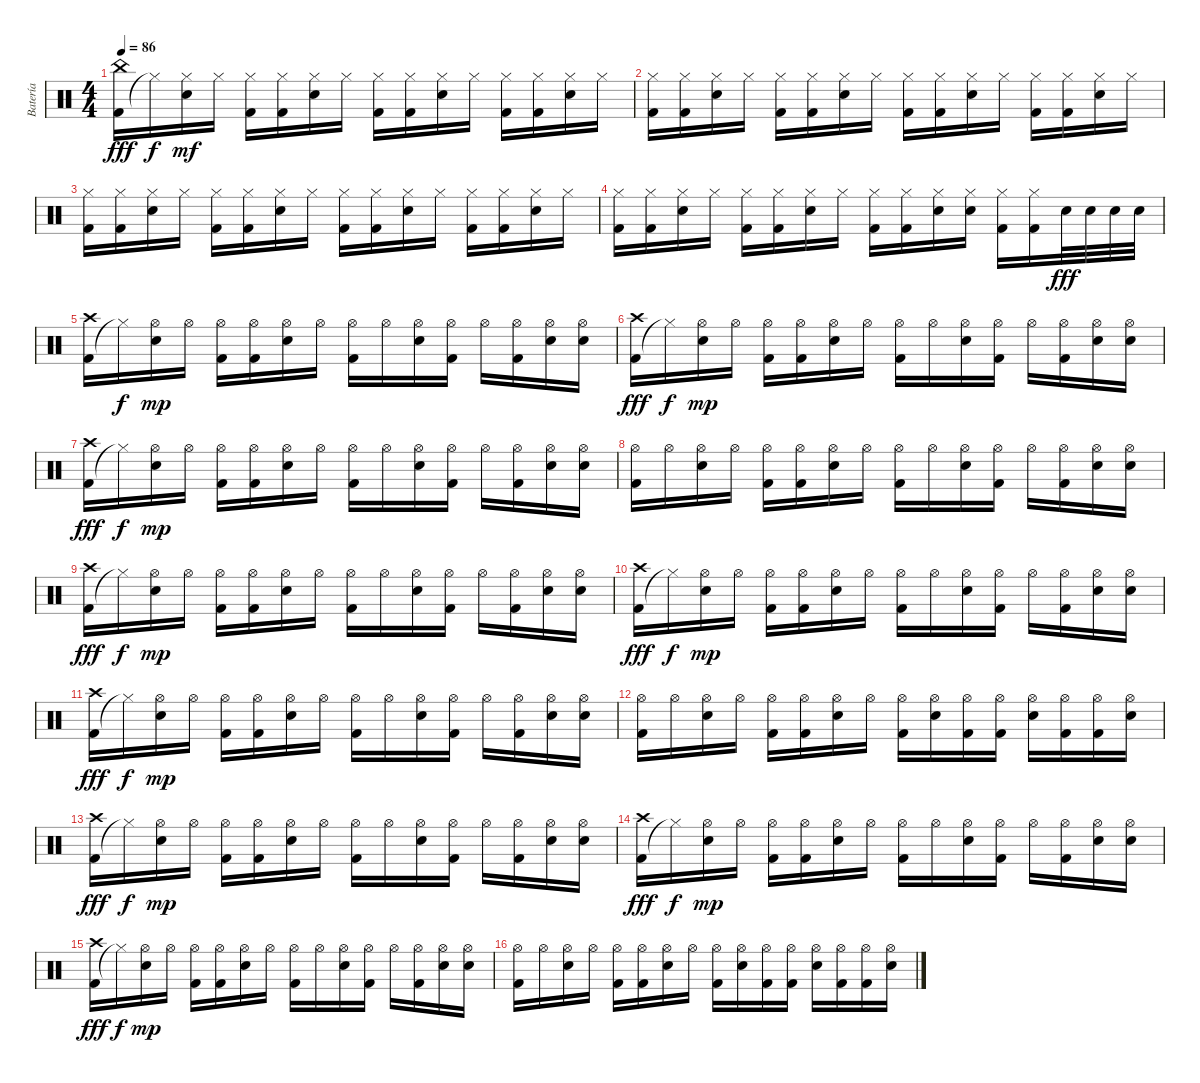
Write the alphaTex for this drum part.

\track ("Batería" "Batería") {instrument percussion}
\staff {score}
\articulation defaults
\ts (4 4)
\tempo 86
\clef neutral
\ks c
("Kick (hit) 2" "China (hit)").16{dy fff} "Hi-Hat (closed)"{t}.16{dy f} ("Electric Snare (hit)" "Hi-Hat (closed)").16{dy mf} "Hi-Hat (closed)".16 ("Kick (hit) 2" "Hi-Hat (closed)").16 ("Kick (hit) 2" "Hi-Hat (closed)").16 ("Electric Snare (hit)" "Hi-Hat (closed)").16 "Hi-Hat (closed)".16 ("Kick (hit) 2" "Hi-Hat (closed)").16 ("Kick (hit) 2" "Hi-Hat (closed)").16 ("Electric Snare (hit)" "Hi-Hat (closed)").16 "Hi-Hat (closed)".16 ("Kick (hit) 2" "Hi-Hat (closed)").16 ("Kick (hit) 2" "Hi-Hat (closed)").16 ("Electric Snare (hit)" "Hi-Hat (closed)").16 "Hi-Hat (closed)".16 |
("Kick (hit) 2" "Hi-Hat (closed)").16 ("Kick (hit) 2" "Hi-Hat (closed)").16 ("Electric Snare (hit)" "Hi-Hat (closed)").16 "Hi-Hat (closed)".16 ("Kick (hit) 2" "Hi-Hat (closed)").16 ("Kick (hit) 2" "Hi-Hat (closed)").16 ("Electric Snare (hit)" "Hi-Hat (closed)").16 "Hi-Hat (closed)".16 ("Kick (hit) 2" "Hi-Hat (closed)").16 ("Kick (hit) 2" "Hi-Hat (closed)").16 ("Electric Snare (hit)" "Hi-Hat (closed)").16 "Hi-Hat (closed)".16 ("Kick (hit) 2" "Hi-Hat (closed)").16 ("Kick (hit) 2" "Hi-Hat (closed)").16 ("Electric Snare (hit)" "Hi-Hat (closed)").16 "Hi-Hat (closed)".16 |
("Kick (hit) 2" "Hi-Hat (closed)").16 ("Kick (hit) 2" "Hi-Hat (closed)").16 ("Electric Snare (hit)" "Hi-Hat (closed)").16 "Hi-Hat (closed)".16 ("Kick (hit) 2" "Hi-Hat (closed)").16 ("Kick (hit) 2" "Hi-Hat (closed)").16 ("Electric Snare (hit)" "Hi-Hat (closed)").16 "Hi-Hat (closed)".16 ("Kick (hit) 2" "Hi-Hat (closed)").16 ("Kick (hit) 2" "Hi-Hat (closed)").16 ("Electric Snare (hit)" "Hi-Hat (closed)").16 "Hi-Hat (closed)".16 ("Kick (hit) 2" "Hi-Hat (closed)").16 ("Kick (hit) 2" "Hi-Hat (closed)").16 ("Electric Snare (hit)" "Hi-Hat (closed)").16 "Hi-Hat (closed)".16 |
("Kick (hit) 2" "Hi-Hat (closed)").16 ("Kick (hit) 2" "Hi-Hat (closed)").16 ("Electric Snare (hit)" "Hi-Hat (closed)").16 "Hi-Hat (closed)".16 ("Kick (hit) 2" "Hi-Hat (closed)").16 ("Kick (hit) 2" "Hi-Hat (closed)").16 ("Electric Snare (hit)" "Hi-Hat (closed)").16 "Hi-Hat (closed)".16 ("Kick (hit) 2" "Hi-Hat (closed)").16 ("Kick (hit) 2" "Hi-Hat (closed)").16 ("Electric Snare (hit)" "Hi-Hat (closed)").16 ("Electric Snare (hit)" "Hi-Hat (closed)").16 ("Kick (hit) 2" "Hi-Hat (closed)").16 ("Kick (hit) 2" "Hi-Hat (closed)").16 "Electric Snare (hit)".32{dy fff} "Electric Snare (hit)".32 "Electric Snare (hit)".32 "Electric Snare (hit)".32 |
("Kick (hit) 2" "Crash high (hit)").16 "Hi-Hat (closed)"{t}.16{dy f} ("Electric Snare (hit)" "Hi-Hat (open)").16{dy mp} "Hi-Hat (open)".16 ("Kick (hit) 2" "Hi-Hat (open)").16 ("Kick (hit) 2" "Hi-Hat (open)").16 ("Electric Snare (hit)" "Hi-Hat (open)").16 "Hi-Hat (open)".16 ("Kick (hit) 2" "Hi-Hat (open)").16 "Hi-Hat (open)".16 ("Electric Snare (hit)" "Hi-Hat (open)").16 ("Kick (hit) 2" "Hi-Hat (open)").16 "Hi-Hat (open)".16 ("Kick (hit) 2" "Hi-Hat (open)").16 ("Electric Snare (hit)" "Hi-Hat (open)").16 ("Electric Snare (hit)" "Hi-Hat (open)").16 |
("Kick (hit) 2" "Crash high (hit)").16{dy fff} "Hi-Hat (closed)"{t}.16{dy f} ("Electric Snare (hit)" "Hi-Hat (open)").16{dy mp} "Hi-Hat (open)".16 ("Kick (hit) 2" "Hi-Hat (open)").16 ("Kick (hit) 2" "Hi-Hat (open)").16 ("Electric Snare (hit)" "Hi-Hat (open)").16 "Hi-Hat (open)".16 ("Kick (hit) 2" "Hi-Hat (open)").16 "Hi-Hat (open)".16 ("Electric Snare (hit)" "Hi-Hat (open)").16 ("Kick (hit) 2" "Hi-Hat (open)").16 "Hi-Hat (open)".16 ("Kick (hit) 2" "Hi-Hat (open)").16 ("Electric Snare (hit)" "Hi-Hat (open)").16 ("Electric Snare (hit)" "Hi-Hat (open)").16 |
("Kick (hit) 2" "Crash high (hit)").16{dy fff} "Hi-Hat (closed)"{t}.16{dy f} ("Electric Snare (hit)" "Hi-Hat (open)").16{dy mp} "Hi-Hat (open)".16 ("Kick (hit) 2" "Hi-Hat (open)").16 ("Kick (hit) 2" "Hi-Hat (open)").16 ("Electric Snare (hit)" "Hi-Hat (open)").16 "Hi-Hat (open)".16 ("Kick (hit) 2" "Hi-Hat (open)").16 "Hi-Hat (open)".16 ("Electric Snare (hit)" "Hi-Hat (open)").16 ("Kick (hit) 2" "Hi-Hat (open)").16 "Hi-Hat (open)".16 ("Kick (hit) 2" "Hi-Hat (open)").16 ("Electric Snare (hit)" "Hi-Hat (open)").16 ("Electric Snare (hit)" "Hi-Hat (open)").16 |
("Kick (hit) 2" "Hi-Hat (open)").16 "Hi-Hat (open)".16 ("Electric Snare (hit)" "Hi-Hat (open)").16 "Hi-Hat (open)".16 ("Kick (hit) 2" "Hi-Hat (open)").16 ("Kick (hit) 2" "Hi-Hat (open)").16 ("Electric Snare (hit)" "Hi-Hat (open)").16 "Hi-Hat (open)".16 ("Kick (hit) 2" "Hi-Hat (open)").16 "Hi-Hat (open)".16 ("Electric Snare (hit)" "Hi-Hat (open)").16 ("Kick (hit) 2" "Hi-Hat (open)").16 "Hi-Hat (open)".16 ("Kick (hit) 2" "Hi-Hat (open)").16 ("Electric Snare (hit)" "Hi-Hat (open)").16 ("Electric Snare (hit)" "Hi-Hat (open)").16 |
("Kick (hit) 2" "Crash high (hit)").16{dy fff} "Hi-Hat (closed)"{t}.16{dy f} ("Electric Snare (hit)" "Hi-Hat (open)").16{dy mp} "Hi-Hat (open)".16 ("Kick (hit) 2" "Hi-Hat (open)").16 ("Kick (hit) 2" "Hi-Hat (open)").16 ("Electric Snare (hit)" "Hi-Hat (open)").16 "Hi-Hat (open)".16 ("Kick (hit) 2" "Hi-Hat (open)").16 "Hi-Hat (open)".16 ("Electric Snare (hit)" "Hi-Hat (open)").16 ("Kick (hit) 2" "Hi-Hat (open)").16 "Hi-Hat (open)".16 ("Kick (hit) 2" "Hi-Hat (open)").16 ("Electric Snare (hit)" "Hi-Hat (open)").16 ("Electric Snare (hit)" "Hi-Hat (open)").16 |
("Kick (hit) 2" "Crash high (hit)").16{dy fff} "Hi-Hat (closed)"{t}.16{dy f} ("Electric Snare (hit)" "Hi-Hat (open)").16{dy mp} "Hi-Hat (open)".16 ("Kick (hit) 2" "Hi-Hat (open)").16 ("Kick (hit) 2" "Hi-Hat (open)").16 ("Electric Snare (hit)" "Hi-Hat (open)").16 "Hi-Hat (open)".16 ("Kick (hit) 2" "Hi-Hat (open)").16 "Hi-Hat (open)".16 ("Electric Snare (hit)" "Hi-Hat (open)").16 ("Kick (hit) 2" "Hi-Hat (open)").16 "Hi-Hat (open)".16 ("Kick (hit) 2" "Hi-Hat (open)").16 ("Electric Snare (hit)" "Hi-Hat (open)").16 ("Electric Snare (hit)" "Hi-Hat (open)").16 |
("Kick (hit) 2" "Crash high (hit)").16{dy fff} "Hi-Hat (closed)"{t}.16{dy f} ("Electric Snare (hit)" "Hi-Hat (open)").16{dy mp} "Hi-Hat (open)".16 ("Kick (hit) 2" "Hi-Hat (open)").16 ("Kick (hit) 2" "Hi-Hat (open)").16 ("Electric Snare (hit)" "Hi-Hat (open)").16 "Hi-Hat (open)".16 ("Kick (hit) 2" "Hi-Hat (open)").16 "Hi-Hat (open)".16 ("Electric Snare (hit)" "Hi-Hat (open)").16 ("Kick (hit) 2" "Hi-Hat (open)").16 "Hi-Hat (open)".16 ("Kick (hit) 2" "Hi-Hat (open)").16 ("Electric Snare (hit)" "Hi-Hat (open)").16 ("Electric Snare (hit)" "Hi-Hat (open)").16 |
("Kick (hit) 2" "Hi-Hat (open)").16 "Hi-Hat (open)".16 ("Electric Snare (hit)" "Hi-Hat (open)").16 "Hi-Hat (open)".16 ("Kick (hit) 2" "Hi-Hat (open)").16 ("Kick (hit) 2" "Hi-Hat (open)").16 ("Electric Snare (hit)" "Hi-Hat (open)").16 "Hi-Hat (open)".16 ("Kick (hit) 2" "Hi-Hat (open)").16 ("Electric Snare (hit)" "Hi-Hat (open)").16 ("Kick (hit) 2" "Hi-Hat (open)").16 ("Kick (hit) 2" "Hi-Hat (open)").16 ("Electric Snare (hit)" "Hi-Hat (open)").16 ("Kick (hit) 2" "Hi-Hat (open)").16 ("Kick (hit) 2" "Hi-Hat (open)").16 ("Electric Snare (hit)" "Hi-Hat (open)").16 |
("Kick (hit) 2" "Crash high (hit)").16{dy fff} "Hi-Hat (closed)"{t}.16{dy f} ("Electric Snare (hit)" "Hi-Hat (open)").16{dy mp} "Hi-Hat (open)".16 ("Kick (hit) 2" "Hi-Hat (open)").16 ("Kick (hit) 2" "Hi-Hat (open)").16 ("Electric Snare (hit)" "Hi-Hat (open)").16 "Hi-Hat (open)".16 ("Kick (hit) 2" "Hi-Hat (open)").16 "Hi-Hat (open)".16 ("Electric Snare (hit)" "Hi-Hat (open)").16 ("Kick (hit) 2" "Hi-Hat (open)").16 "Hi-Hat (open)".16 ("Kick (hit) 2" "Hi-Hat (open)").16 ("Electric Snare (hit)" "Hi-Hat (open)").16 ("Electric Snare (hit)" "Hi-Hat (open)").16 |
("Kick (hit) 2" "Crash high (hit)").16{dy fff} "Hi-Hat (closed)"{t}.16{dy f} ("Electric Snare (hit)" "Hi-Hat (open)").16{dy mp} "Hi-Hat (open)".16 ("Kick (hit) 2" "Hi-Hat (open)").16 ("Kick (hit) 2" "Hi-Hat (open)").16 ("Electric Snare (hit)" "Hi-Hat (open)").16 "Hi-Hat (open)".16 ("Kick (hit) 2" "Hi-Hat (open)").16 "Hi-Hat (open)".16 ("Electric Snare (hit)" "Hi-Hat (open)").16 ("Kick (hit) 2" "Hi-Hat (open)").16 "Hi-Hat (open)".16 ("Kick (hit) 2" "Hi-Hat (open)").16 ("Electric Snare (hit)" "Hi-Hat (open)").16 ("Electric Snare (hit)" "Hi-Hat (open)").16 |
("Kick (hit) 2" "Crash high (hit)").16{dy fff} "Hi-Hat (closed)"{t}.16{dy f} ("Electric Snare (hit)" "Hi-Hat (open)").16{dy mp} "Hi-Hat (open)".16 ("Kick (hit) 2" "Hi-Hat (open)").16 ("Kick (hit) 2" "Hi-Hat (open)").16 ("Electric Snare (hit)" "Hi-Hat (open)").16 "Hi-Hat (open)".16 ("Kick (hit) 2" "Hi-Hat (open)").16 "Hi-Hat (open)".16 ("Electric Snare (hit)" "Hi-Hat (open)").16 ("Kick (hit) 2" "Hi-Hat (open)").16 "Hi-Hat (open)".16 ("Kick (hit) 2" "Hi-Hat (open)").16 ("Electric Snare (hit)" "Hi-Hat (open)").16 ("Electric Snare (hit)" "Hi-Hat (open)").16 |
("Kick (hit) 2" "Hi-Hat (open)").16 "Hi-Hat (open)".16 ("Electric Snare (hit)" "Hi-Hat (open)").16 "Hi-Hat (open)".16 ("Kick (hit) 2" "Hi-Hat (open)").16 ("Kick (hit) 2" "Hi-Hat (open)").16 ("Electric Snare (hit)" "Hi-Hat (open)").16 "Hi-Hat (open)".16 ("Kick (hit) 2" "Hi-Hat (open)").16 ("Electric Snare (hit)" "Hi-Hat (open)").16 ("Kick (hit) 2" "Hi-Hat (open)").16 ("Kick (hit) 2" "Hi-Hat (open)").16 ("Electric Snare (hit)" "Hi-Hat (open)").16 ("Kick (hit) 2" "Hi-Hat (open)").16 ("Kick (hit) 2" "Hi-Hat (open)").16 ("Electric Snare (hit)" "Hi-Hat (open)").16
